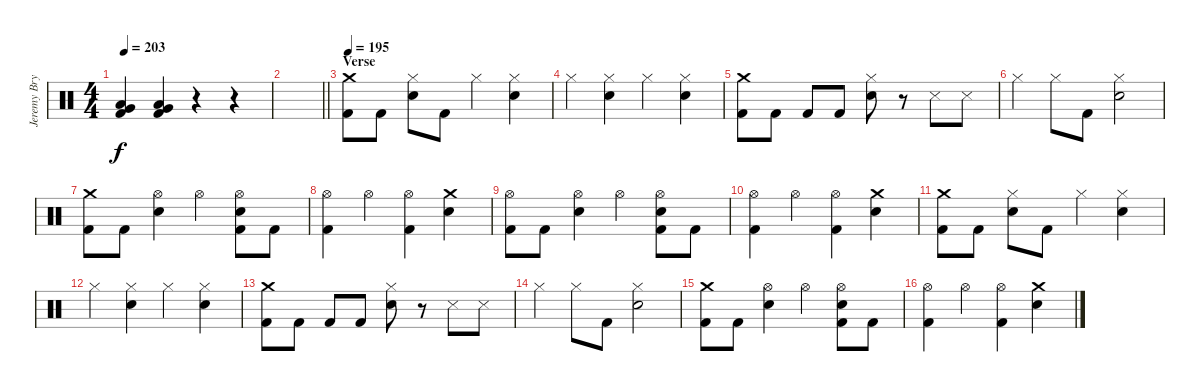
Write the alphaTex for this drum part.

\track ("Jeremy Bryan - Drums" "Jeremy Bry") {instrument percussion}
\staff {score}
\articulation defaults
\ts (4 4)
\tempo 203
\clef neutral
\ks c
("Low Floor Tom (hit)" "Very Low Tom (hit)" "Kick (hit) 2").4{dy f} ("Low Floor Tom (hit)" "Very Low Tom (hit)" "Kick (hit) 2").4 r.4 r.4 |
\barLineRight lightlight
|
\section ("" "Verse")
\tempo 195
("Crash medium (hit)" "Kick (hit) 2").8 "Kick (hit) 2".8 ("Hi-Hat (closed)" "Electric Snare (hit)").8 "Kick (hit) 2".8 "Hi-Hat (closed)".4 ("Hi-Hat (closed)" "Electric Snare (hit)").4 |
"Hi-Hat (closed)".4 ("Hi-Hat (closed)" "Electric Snare (hit)").4 "Hi-Hat (closed)".4 ("Hi-Hat (closed)" "Electric Snare (hit)").4 |
("Crash medium (hit)" "Kick (hit) 2").8 "Kick (hit) 2".8 "Kick (hit) 2".8 "Kick (hit) 2".8 ("Hi-Hat (closed)" "Electric Snare (hit)").8 r.8 "Snare (side stick) 3".8 "Snare (side stick) 3".8 |
"Hi-Hat (closed)".4 "Hi-Hat (closed)".8 "Kick (hit) 2".8 ("Hi-Hat (closed)" "Electric Snare (hit)").2 |
("Crash medium (hit)" "Kick (hit) 2").8 "Kick (hit) 2".8 ("Hi-Hat (open)" "Electric Snare (hit)").4 "Hi-Hat (open)".4 ("Hi-Hat (open)" "Electric Snare (hit)" "Kick (hit) 2").8 "Kick (hit) 2".8 |
("Hi-Hat (open)" "Kick (hit) 2").4 "Hi-Hat (open)".4 ("Hi-Hat (open)" "Kick (hit) 2").4 ("Crash medium (hit)" "Electric Snare (hit)").4 |
("Hi-Hat (open)" "Kick (hit) 2").8 "Kick (hit) 2".8 ("Hi-Hat (open)" "Electric Snare (hit)").4 "Hi-Hat (open)".4 ("Hi-Hat (open)" "Electric Snare (hit)" "Kick (hit) 2").8 "Kick (hit) 2".8 |
("Hi-Hat (open)" "Kick (hit) 2").4 "Hi-Hat (open)".4 ("Hi-Hat (open)" "Kick (hit) 2").4 ("Crash medium (hit)" "Electric Snare (hit)").4 |
("Crash medium (hit)" "Kick (hit) 2").8 "Kick (hit) 2".8 ("Hi-Hat (closed)" "Electric Snare (hit)").8 "Kick (hit) 2".8 "Hi-Hat (closed)".4 ("Hi-Hat (closed)" "Electric Snare (hit)").4 |
"Hi-Hat (closed)".4 ("Hi-Hat (closed)" "Electric Snare (hit)").4 "Hi-Hat (closed)".4 ("Hi-Hat (closed)" "Electric Snare (hit)").4 |
("Crash medium (hit)" "Kick (hit) 2").8 "Kick (hit) 2".8 "Kick (hit) 2".8 "Kick (hit) 2".8 ("Hi-Hat (closed)" "Electric Snare (hit)").8 r.8 "Snare (side stick) 3".8 "Snare (side stick) 3".8 |
"Hi-Hat (closed)".4 "Hi-Hat (closed)".8 "Kick (hit) 2".8 ("Hi-Hat (closed)" "Electric Snare (hit)").2 |
("Crash medium (hit)" "Kick (hit) 2").8 "Kick (hit) 2".8 ("Hi-Hat (open)" "Electric Snare (hit)").4 "Hi-Hat (open)".4 ("Hi-Hat (open)" "Electric Snare (hit)" "Kick (hit) 2").8 "Kick (hit) 2".8 |
("Hi-Hat (open)" "Kick (hit) 2").4 "Hi-Hat (open)".4 ("Hi-Hat (open)" "Kick (hit) 2").4 ("Crash medium (hit)" "Electric Snare (hit)").4
